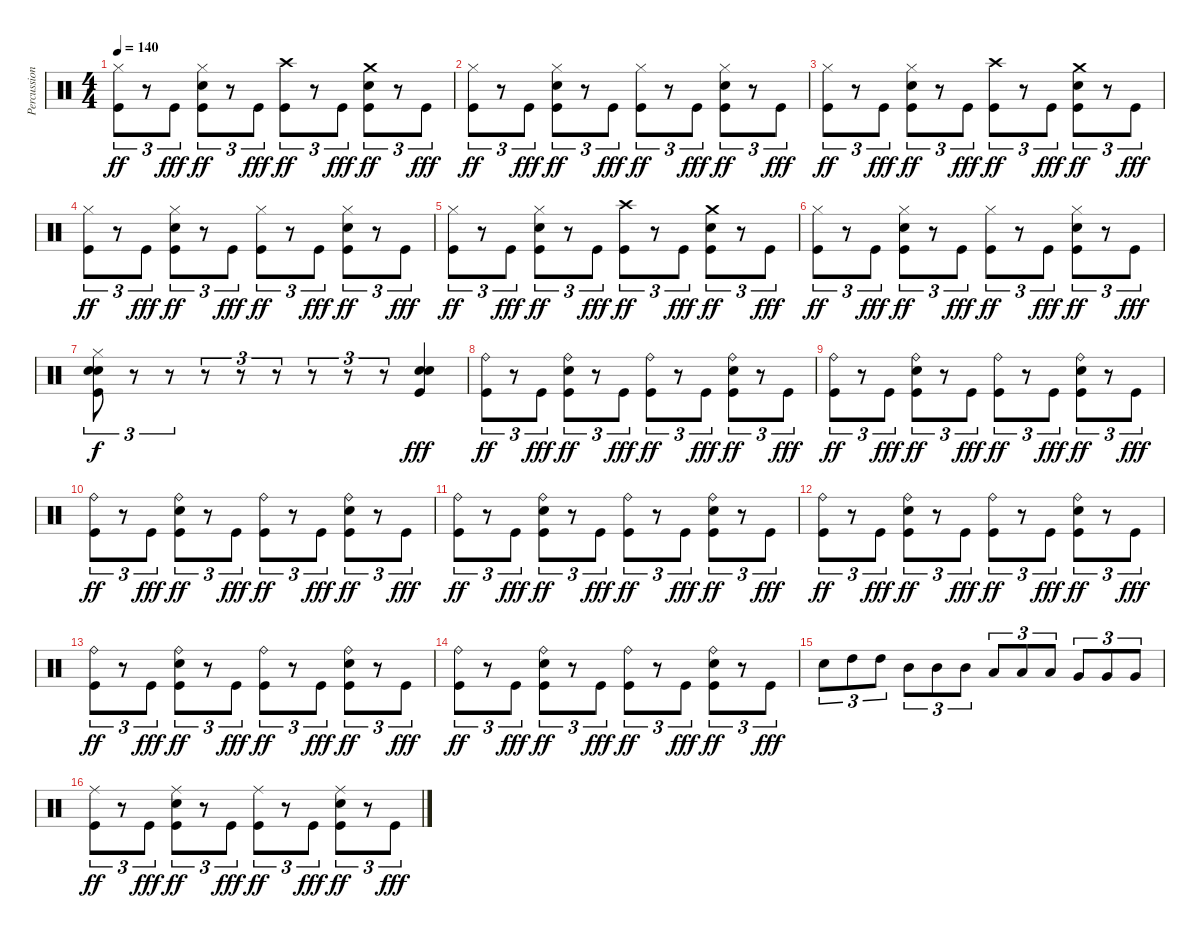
\track ("Percussions" "Percussion") {instrument percussion}
\staff {score}
\articulation defaults
\ts (4 4)
\tempo 140
\clef neutral
\ks c
("Hi-Hat (closed)" "Kick (hit)").8{tu (3 2) dy ff} r.8{tu (3 2)} "Kick (hit)".8{tu (3 2) dy fff} ("Hi-Hat (closed)" "Snare (hit) 2" "Kick (hit)").8{tu (3 2) dy ff} r.8{tu (3 2)} "Kick (hit)".8{tu (3 2) dy fff} ("Crash high (hit)" "Kick (hit)").8{tu (3 2) dy ff} r.8{tu (3 2)} "Kick (hit)".8{tu (3 2) dy fff} ("Crash medium (hit)" "Snare (hit) 2" "Kick (hit)").8{tu (3 2) dy ff} r.8{tu (3 2)} "Kick (hit)".8{tu (3 2) dy fff} |
("Hi-Hat (closed)" "Kick (hit)").8{tu (3 2) dy ff} r.8{tu (3 2)} "Kick (hit)".8{tu (3 2) dy fff} ("Hi-Hat (closed)" "Snare (hit) 2" "Kick (hit)").8{tu (3 2) dy ff} r.8{tu (3 2)} "Kick (hit)".8{tu (3 2) dy fff} ("Hi-Hat (closed)" "Kick (hit)").8{tu (3 2) dy ff} r.8{tu (3 2)} "Kick (hit)".8{tu (3 2) dy fff} ("Hi-Hat (closed)" "Snare (hit) 2" "Kick (hit)").8{tu (3 2) dy ff} r.8{tu (3 2)} "Kick (hit)".8{tu (3 2) dy fff} |
("Hi-Hat (closed)" "Kick (hit)").8{tu (3 2) dy ff} r.8{tu (3 2)} "Kick (hit)".8{tu (3 2) dy fff} ("Hi-Hat (closed)" "Snare (hit) 2" "Kick (hit)").8{tu (3 2) dy ff} r.8{tu (3 2)} "Kick (hit)".8{tu (3 2) dy fff} ("Crash high (hit)" "Kick (hit)").8{tu (3 2) dy ff} r.8{tu (3 2)} "Kick (hit)".8{tu (3 2) dy fff} ("Crash medium (hit)" "Snare (hit) 2" "Kick (hit)").8{tu (3 2) dy ff} r.8{tu (3 2)} "Kick (hit)".8{tu (3 2) dy fff} |
("Hi-Hat (closed)" "Kick (hit)").8{tu (3 2) dy ff} r.8{tu (3 2)} "Kick (hit)".8{tu (3 2) dy fff} ("Hi-Hat (closed)" "Snare (hit) 2" "Kick (hit)").8{tu (3 2) dy ff} r.8{tu (3 2)} "Kick (hit)".8{tu (3 2) dy fff} ("Hi-Hat (closed)" "Kick (hit)").8{tu (3 2) dy ff} r.8{tu (3 2)} "Kick (hit)".8{tu (3 2) dy fff} ("Hi-Hat (closed)" "Snare (hit) 2" "Kick (hit)").8{tu (3 2) dy ff} r.8{tu (3 2)} "Kick (hit)".8{tu (3 2) dy fff} |
("Hi-Hat (closed)" "Kick (hit)").8{tu (3 2) dy ff} r.8{tu (3 2)} "Kick (hit)".8{tu (3 2) dy fff} ("Hi-Hat (closed)" "Snare (hit) 2" "Kick (hit)").8{tu (3 2) dy ff} r.8{tu (3 2)} "Kick (hit)".8{tu (3 2) dy fff} ("Crash high (hit)" "Kick (hit)").8{tu (3 2) dy ff} r.8{tu (3 2)} "Kick (hit)".8{tu (3 2) dy fff} ("Crash medium (hit)" "Snare (hit) 2" "Kick (hit)").8{tu (3 2) dy ff} r.8{tu (3 2)} "Kick (hit)".8{tu (3 2) dy fff} |
("Hi-Hat (closed)" "Kick (hit)").8{tu (3 2) dy ff} r.8{tu (3 2)} "Kick (hit)".8{tu (3 2) dy fff} ("Hi-Hat (closed)" "Snare (hit) 2" "Kick (hit)").8{tu (3 2) dy ff} r.8{tu (3 2)} "Kick (hit)".8{tu (3 2) dy fff} ("Hi-Hat (closed)" "Kick (hit)").8{tu (3 2) dy ff} r.8{tu (3 2)} "Kick (hit)".8{tu (3 2) dy fff} ("Hi-Hat (closed)" "Snare (hit) 2" "Kick (hit)").8{tu (3 2) dy ff} r.8{tu (3 2)} "Kick (hit)".8{tu (3 2) dy fff} |
("Hi-Hat (closed)" "Snare (hit) 2" "Snare (hit) 2" "Kick (hit)").8{tu (3 2) dy f} r.8{tu (3 2)} r.8{tu (3 2)} r.8{tu (3 2)} r.8{tu (3 2)} r.8{tu (3 2)} r.8{tu (3 2)} r.8{tu (3 2)} r.8{tu (3 2)} ("Snare (hit) 2" "Snare (hit) 2" "Kick (hit)").4{dy fff} |
("Ride (bell)" "Kick (hit)").8{tu (3 2) dy ff} r.8{tu (3 2)} "Kick (hit)".8{tu (3 2) dy fff} ("Ride (bell)" "Snare (hit) 2" "Kick (hit)").8{tu (3 2) dy ff} r.8{tu (3 2)} "Kick (hit)".8{tu (3 2) dy fff} ("Ride (bell)" "Kick (hit)").8{tu (3 2) dy ff} r.8{tu (3 2)} "Kick (hit)".8{tu (3 2) dy fff} ("Ride (bell)" "Snare (hit) 2" "Kick (hit)").8{tu (3 2) dy ff} r.8{tu (3 2)} "Kick (hit)".8{tu (3 2) dy fff} |
("Ride (bell)" "Kick (hit)").8{tu (3 2) dy ff} r.8{tu (3 2)} "Kick (hit)".8{tu (3 2) dy fff} ("Ride (bell)" "Snare (hit) 2" "Kick (hit)").8{tu (3 2) dy ff} r.8{tu (3 2)} "Kick (hit)".8{tu (3 2) dy fff} ("Ride (bell)" "Kick (hit)").8{tu (3 2) dy ff} r.8{tu (3 2)} "Kick (hit)".8{tu (3 2) dy fff} ("Ride (bell)" "Snare (hit) 2" "Kick (hit)").8{tu (3 2) dy ff} r.8{tu (3 2)} "Kick (hit)".8{tu (3 2) dy fff} |
("Ride (bell)" "Kick (hit)").8{tu (3 2) dy ff} r.8{tu (3 2)} "Kick (hit)".8{tu (3 2) dy fff} ("Ride (bell)" "Snare (hit) 2" "Kick (hit)").8{tu (3 2) dy ff} r.8{tu (3 2)} "Kick (hit)".8{tu (3 2) dy fff} ("Ride (bell)" "Kick (hit)").8{tu (3 2) dy ff} r.8{tu (3 2)} "Kick (hit)".8{tu (3 2) dy fff} ("Ride (bell)" "Snare (hit) 2" "Kick (hit)").8{tu (3 2) dy ff} r.8{tu (3 2)} "Kick (hit)".8{tu (3 2) dy fff} |
("Ride (bell)" "Kick (hit)").8{tu (3 2) dy ff} r.8{tu (3 2)} "Kick (hit)".8{tu (3 2) dy fff} ("Ride (bell)" "Snare (hit) 2" "Kick (hit)").8{tu (3 2) dy ff} r.8{tu (3 2)} "Kick (hit)".8{tu (3 2) dy fff} ("Ride (bell)" "Kick (hit)").8{tu (3 2) dy ff} r.8{tu (3 2)} "Kick (hit)".8{tu (3 2) dy fff} ("Ride (bell)" "Snare (hit) 2" "Kick (hit)").8{tu (3 2) dy ff} r.8{tu (3 2)} "Kick (hit)".8{tu (3 2) dy fff} |
("Ride (bell)" "Kick (hit)").8{tu (3 2) dy ff} r.8{tu (3 2)} "Kick (hit)".8{tu (3 2) dy fff} ("Ride (bell)" "Snare (hit) 2" "Kick (hit)").8{tu (3 2) dy ff} r.8{tu (3 2)} "Kick (hit)".8{tu (3 2) dy fff} ("Ride (bell)" "Kick (hit)").8{tu (3 2) dy ff} r.8{tu (3 2)} "Kick (hit)".8{tu (3 2) dy fff} ("Ride (bell)" "Snare (hit) 2" "Kick (hit)").8{tu (3 2) dy ff} r.8{tu (3 2)} "Kick (hit)".8{tu (3 2) dy fff} |
("Ride (bell)" "Kick (hit)").8{tu (3 2) dy ff} r.8{tu (3 2)} "Kick (hit)".8{tu (3 2) dy fff} ("Ride (bell)" "Snare (hit) 2" "Kick (hit)").8{tu (3 2) dy ff} r.8{tu (3 2)} "Kick (hit)".8{tu (3 2) dy fff} ("Ride (bell)" "Kick (hit)").8{tu (3 2) dy ff} r.8{tu (3 2)} "Kick (hit)".8{tu (3 2) dy fff} ("Ride (bell)" "Snare (hit) 2" "Kick (hit)").8{tu (3 2) dy ff} r.8{tu (3 2)} "Kick (hit)".8{tu (3 2) dy fff} |
("Ride (bell)" "Kick (hit)").8{tu (3 2) dy ff} r.8{tu (3 2)} "Kick (hit)".8{tu (3 2) dy fff} ("Ride (bell)" "Snare (hit) 2" "Kick (hit)").8{tu (3 2) dy ff} r.8{tu (3 2)} "Kick (hit)".8{tu (3 2) dy fff} ("Ride (bell)" "Kick (hit)").8{tu (3 2) dy ff} r.8{tu (3 2)} "Kick (hit)".8{tu (3 2) dy fff} ("Ride (bell)" "Snare (hit) 2" "Kick (hit)").8{tu (3 2) dy ff} r.8{tu (3 2)} "Kick (hit)".8{tu (3 2) dy fff} |
"Snare (hit) 2".8{tu (3 2)} "High Tom (hit)".8{tu (3 2)} "High Tom (hit)".8{tu (3 2)} "Mid Tom (hit)".8{tu (3 2)} "Mid Tom (hit)".8{tu (3 2)} "Mid Tom (hit)".8{tu (3 2)} "Low Tom (hit)".8{tu (3 2)} "Low Tom (hit)".8{tu (3 2)} "Low Tom (hit)".8{tu (3 2)} "Very Low Tom (hit)".8{tu (3 2)} "Very Low Tom (hit)".8{tu (3 2)} "Very Low Tom (hit)".8{tu (3 2)} |
("Ride (middle)" "Kick (hit)").8{tu (3 2) dy ff} r.8{tu (3 2)} "Kick (hit)".8{tu (3 2) dy fff} ("Ride (middle)" "Snare (hit) 2" "Kick (hit)").8{tu (3 2) dy ff} r.8{tu (3 2)} "Kick (hit)".8{tu (3 2) dy fff} ("Ride (middle)" "Kick (hit)").8{tu (3 2) dy ff} r.8{tu (3 2)} "Kick (hit)".8{tu (3 2) dy fff} ("Ride (middle)" "Snare (hit) 2" "Kick (hit)").8{tu (3 2) dy ff} r.8{tu (3 2)} "Kick (hit)".8{tu (3 2) dy fff}
